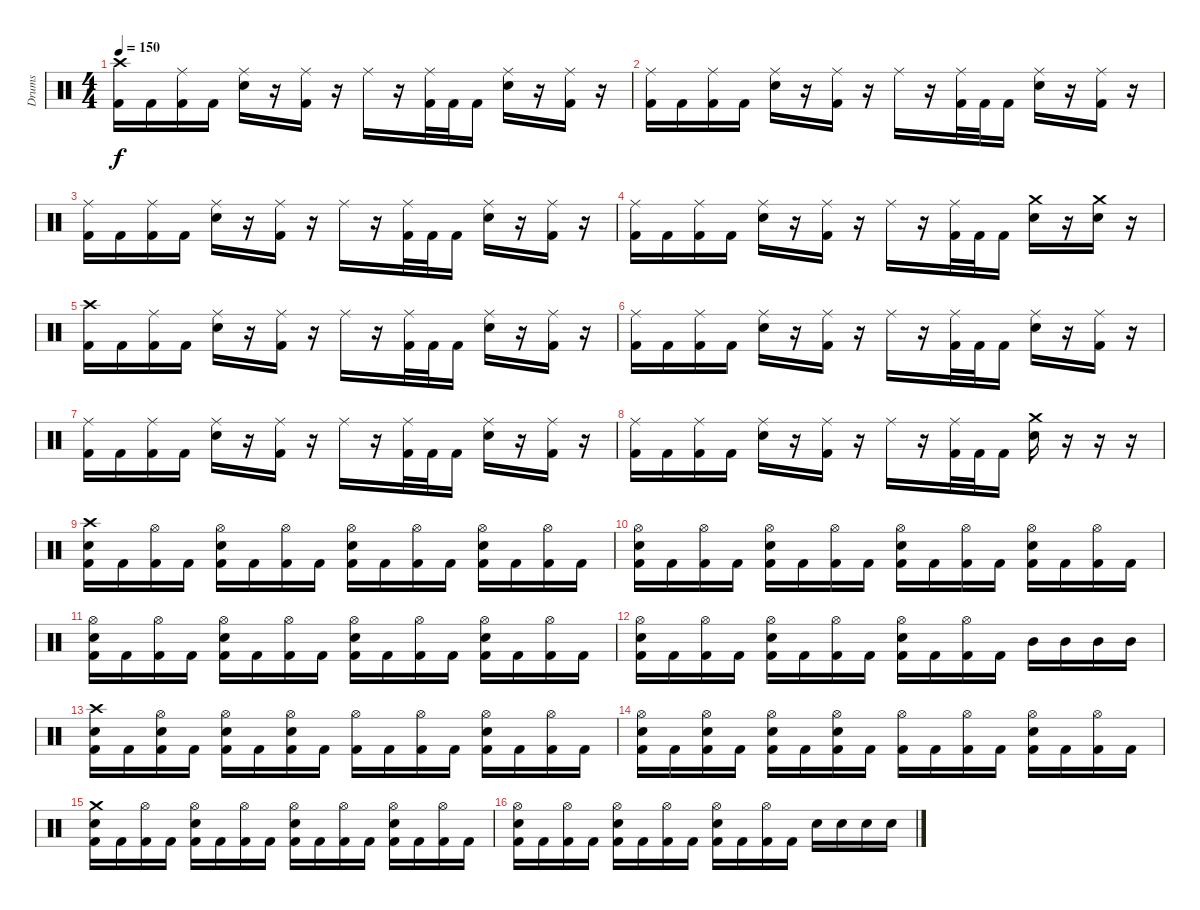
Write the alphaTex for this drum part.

\track ("Drums" "Drums") {instrument percussion}
\staff {score}
\articulation defaults
\ts (4 4)
\tempo 150
\clef neutral
\ks c
("Crash high (hit)" "Kick (hit) 2").16{dy f} "Kick (hit) 2".16 ("Ride (middle)" "Kick (hit) 2").16 "Kick (hit) 2".16 ("Ride (middle)" "Snare (hit) 2").16 r.16 ("Ride (middle)" "Kick (hit) 2").16 r.16 "Ride (middle)".16 r.16 ("Ride (middle)" "Kick (hit) 2").32 "Kick (hit) 2".32 "Kick (hit) 2".16 ("Ride (middle)" "Snare (hit) 2").16 r.16 ("Ride (middle)" "Kick (hit) 2").16 r.16 |
("Ride (middle)" "Kick (hit) 2").16 "Kick (hit) 2".16 ("Ride (middle)" "Kick (hit) 2").16 "Kick (hit) 2".16 ("Ride (middle)" "Snare (hit) 2").16 r.16 ("Ride (middle)" "Kick (hit) 2").16 r.16 "Ride (middle)".16 r.16 ("Ride (middle)" "Kick (hit) 2").32 "Kick (hit) 2".32 "Kick (hit) 2".16 ("Ride (middle)" "Snare (hit) 2").16 r.16 ("Ride (middle)" "Kick (hit) 2").16 r.16 |
("Ride (middle)" "Kick (hit) 2").16 "Kick (hit) 2".16 ("Ride (middle)" "Kick (hit) 2").16 "Kick (hit) 2".16 ("Ride (middle)" "Snare (hit) 2").16 r.16 ("Ride (middle)" "Kick (hit) 2").16 r.16 "Ride (middle)".16 r.16 ("Ride (middle)" "Kick (hit) 2").32 "Kick (hit) 2".32 "Kick (hit) 2".16 ("Ride (middle)" "Snare (hit) 2").16 r.16 ("Ride (middle)" "Kick (hit) 2").16 r.16 |
("Ride (middle)" "Kick (hit) 2").16 "Kick (hit) 2".16 ("Ride (middle)" "Kick (hit) 2").16 "Kick (hit) 2".16 ("Ride (middle)" "Snare (hit) 2").16 r.16 ("Ride (middle)" "Kick (hit) 2").16 r.16 "Ride (middle)".16 r.16 ("Ride (middle)" "Kick (hit) 2").32 "Kick (hit) 2".32 "Kick (hit) 2".16 ("Crash medium (hit)" "Snare (hit) 2").16 r.16 ("Crash medium (hit)" "Snare (hit) 2").16 r.16 |
("Crash high (hit)" "Kick (hit) 2").16 "Kick (hit) 2".16 ("Ride (middle)" "Kick (hit) 2").16 "Kick (hit) 2".16 ("Ride (middle)" "Snare (hit) 2").16 r.16 ("Ride (middle)" "Kick (hit) 2").16 r.16 "Ride (middle)".16 r.16 ("Ride (middle)" "Kick (hit) 2").32 "Kick (hit) 2".32 "Kick (hit) 2".16 ("Ride (middle)" "Snare (hit) 2").16 r.16 ("Ride (middle)" "Kick (hit) 2").16 r.16 |
("Ride (middle)" "Kick (hit) 2").16 "Kick (hit) 2".16 ("Ride (middle)" "Kick (hit) 2").16 "Kick (hit) 2".16 ("Ride (middle)" "Snare (hit) 2").16 r.16 ("Ride (middle)" "Kick (hit) 2").16 r.16 "Ride (middle)".16 r.16 ("Ride (middle)" "Kick (hit) 2").32 "Kick (hit) 2".32 "Kick (hit) 2".16 ("Ride (middle)" "Snare (hit) 2").16 r.16 ("Ride (middle)" "Kick (hit) 2").16 r.16 |
("Ride (middle)" "Kick (hit) 2").16 "Kick (hit) 2".16 ("Ride (middle)" "Kick (hit) 2").16 "Kick (hit) 2".16 ("Ride (middle)" "Snare (hit) 2").16 r.16 ("Ride (middle)" "Kick (hit) 2").16 r.16 "Ride (middle)".16 r.16 ("Ride (middle)" "Kick (hit) 2").32 "Kick (hit) 2".32 "Kick (hit) 2".16 ("Ride (middle)" "Snare (hit) 2").16 r.16 ("Ride (middle)" "Kick (hit) 2").16 r.16 |
("Ride (middle)" "Kick (hit) 2").16 "Kick (hit) 2".16 ("Ride (middle)" "Kick (hit) 2").16 "Kick (hit) 2".16 ("Ride (middle)" "Snare (hit) 2").16 r.16 ("Ride (middle)" "Kick (hit) 2").16 r.16 "Ride (middle)".16 r.16 ("Ride (middle)" "Kick (hit) 2").32 "Kick (hit) 2".32 "Kick (hit) 2".16 ("Crash medium (hit)" "Snare (hit) 2").16 r.16 r.16 r.16 |
("Crash high (hit)" "Snare (hit) 2" "Kick (hit) 2").16 "Kick (hit) 2".16 ("Hi-Hat (open)" "Kick (hit) 2").16 "Kick (hit) 2".16 ("Hi-Hat (open)" "Snare (hit) 2" "Kick (hit) 2").16 "Kick (hit) 2".16 ("Hi-Hat (open)" "Kick (hit) 2").16 "Kick (hit) 2".16 ("Hi-Hat (open)" "Snare (hit) 2" "Kick (hit) 2").16 "Kick (hit) 2".16 ("Hi-Hat (open)" "Kick (hit) 2").16 "Kick (hit) 2".16 ("Hi-Hat (open)" "Snare (hit) 2" "Kick (hit) 2").16 "Kick (hit) 2".16 ("Hi-Hat (open)" "Kick (hit) 2").16 "Kick (hit) 2".16 |
("Hi-Hat (open)" "Electric Snare (hit)" "Kick (hit) 2").16 "Kick (hit) 2".16 ("Hi-Hat (open)" "Kick (hit) 2").16 "Kick (hit) 2".16 ("Hi-Hat (open)" "Snare (hit) 2" "Kick (hit) 2").16 "Kick (hit) 2".16 ("Hi-Hat (open)" "Kick (hit) 2").16 "Kick (hit) 2".16 ("Hi-Hat (open)" "Snare (hit) 2" "Kick (hit) 2").16 "Kick (hit) 2".16 ("Hi-Hat (open)" "Kick (hit) 2").16 "Kick (hit) 2".16 ("Hi-Hat (open)" "Snare (hit) 2" "Kick (hit) 2").16 "Kick (hit) 2".16 ("Hi-Hat (open)" "Kick (hit) 2").16 "Kick (hit) 2".16 |
("Hi-Hat (open)" "Snare (hit) 2" "Kick (hit) 2").16 "Kick (hit) 2".16 ("Hi-Hat (open)" "Kick (hit) 2").16 "Kick (hit) 2".16 ("Hi-Hat (open)" "Snare (hit) 2" "Kick (hit) 2").16 "Kick (hit) 2".16 ("Hi-Hat (open)" "Kick (hit) 2").16 "Kick (hit) 2".16 ("Hi-Hat (open)" "Snare (hit) 2" "Kick (hit) 2").16 "Kick (hit) 2".16 ("Hi-Hat (open)" "Kick (hit) 2").16 "Kick (hit) 2".16 ("Hi-Hat (open)" "Snare (hit) 2" "Kick (hit) 2").16 "Kick (hit) 2".16 ("Hi-Hat (open)" "Kick (hit) 2").16 "Kick (hit) 2".16 |
("Hi-Hat (open)" "Snare (hit) 2" "Kick (hit) 2").16 "Kick (hit) 2".16 ("Hi-Hat (open)" "Kick (hit) 2").16 "Kick (hit) 2".16 ("Hi-Hat (open)" "Snare (hit) 2" "Kick (hit) 2").16 "Kick (hit) 2".16 ("Hi-Hat (open)" "Kick (hit) 2").16 "Kick (hit) 2".16 ("Hi-Hat (open)" "Snare (hit) 2" "Kick (hit) 2").16 "Kick (hit) 2".16 ("Hi-Hat (open)" "Kick (hit) 2").16 "Kick (hit) 2".16 "Mid Tom (hit)".16 "Mid Tom (hit)".16 "Mid Tom (hit)".16 "Mid Tom (hit)".16 |
("Crash high (hit)" "Snare (hit) 2" "Kick (hit) 2").16 "Kick (hit) 2".16 ("Hi-Hat (open)" "Snare (hit) 2" "Kick (hit) 2").16 "Kick (hit) 2".16 ("Hi-Hat (open)" "Snare (hit) 2" "Kick (hit) 2").16 "Kick (hit) 2".16 ("Hi-Hat (open)" "Snare (hit) 2" "Kick (hit) 2").16 "Kick (hit) 2".16 ("Hi-Hat (open)" "Kick (hit) 2").16 "Kick (hit) 2".16 ("Hi-Hat (open)" "Kick (hit) 2").16 "Kick (hit) 2".16 ("Hi-Hat (open)" "Snare (hit) 2" "Kick (hit) 2").16 "Kick (hit) 2".16 ("Hi-Hat (open)" "Kick (hit) 2").16 "Kick (hit) 2".16 |
("Hi-Hat (open)" "Snare (hit) 2" "Kick (hit) 2").16 "Kick (hit) 2".16 ("Hi-Hat (open)" "Snare (hit) 2" "Kick (hit) 2").16 "Kick (hit) 2".16 ("Hi-Hat (open)" "Snare (hit) 2" "Kick (hit) 2").16 "Kick (hit) 2".16 ("Hi-Hat (open)" "Snare (hit) 2" "Kick (hit) 2").16 "Kick (hit) 2".16 ("Hi-Hat (open)" "Kick (hit) 2").16 "Kick (hit) 2".16 ("Hi-Hat (open)" "Kick (hit) 2").16 "Kick (hit) 2".16 ("Hi-Hat (open)" "Snare (hit) 2" "Kick (hit) 2").16 "Kick (hit) 2".16 ("Hi-Hat (open)" "Kick (hit) 2").16 "Kick (hit) 2".16 |
("Crash medium (hit)" "Snare (hit) 2" "Kick (hit) 2").16 "Kick (hit) 2".16 ("Hi-Hat (open)" "Kick (hit) 2").16 "Kick (hit) 2".16 ("Hi-Hat (open)" "Snare (hit) 2" "Kick (hit) 2").16 "Kick (hit) 2".16 ("Hi-Hat (open)" "Kick (hit) 2").16 "Kick (hit) 2".16 ("Hi-Hat (open)" "Snare (hit) 2" "Kick (hit) 2").16 "Kick (hit) 2".16 ("Hi-Hat (open)" "Kick (hit) 2").16 "Kick (hit) 2".16 ("Hi-Hat (open)" "Snare (hit) 2" "Kick (hit) 2").16 "Kick (hit) 2".16 ("Hi-Hat (open)" "Kick (hit) 2").16 "Kick (hit) 2".16 |
("Hi-Hat (open)" "Snare (hit) 2" "Kick (hit) 2").16 "Kick (hit) 2".16 ("Hi-Hat (open)" "Kick (hit) 2").16 "Kick (hit) 2".16 ("Hi-Hat (open)" "Snare (hit) 2" "Kick (hit) 2").16 "Kick (hit) 2".16 ("Hi-Hat (open)" "Kick (hit) 2").16 "Kick (hit) 2".16 ("Hi-Hat (open)" "Snare (hit) 2" "Kick (hit) 2").16 "Kick (hit) 2".16 ("Hi-Hat (open)" "Kick (hit) 2").16 "Kick (hit) 2".16 "Snare (hit) 2".16 "Snare (hit) 2".16 "Snare (hit) 2".16 "Snare (hit) 2".16
